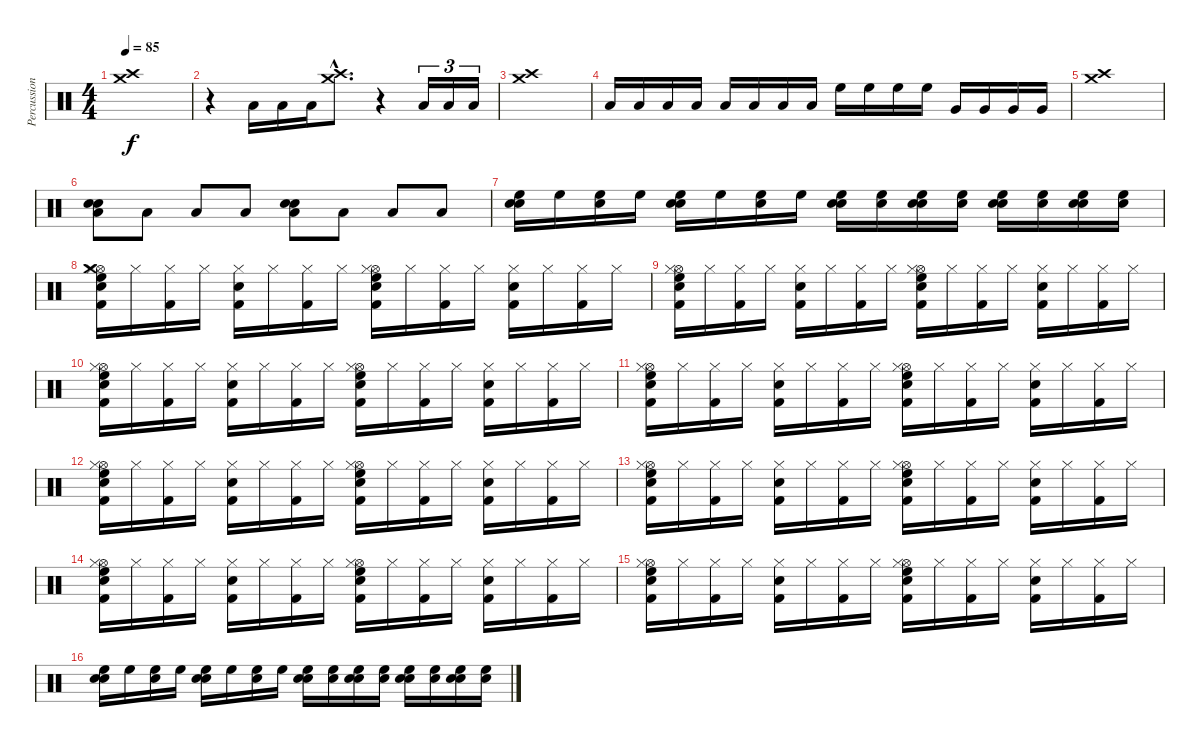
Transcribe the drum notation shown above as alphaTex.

\track ("Percussions" "Percussion") {instrument percussion}
\staff {score}
\articulation defaults
\ts (4 4)
\tempo 85
\clef neutral
\ks c
("Crash medium (hit)" "Crash high (hit)").1{dy f} |
r.4 "Low Floor Tom (hit)".16 "Low Floor Tom (hit)".16 "Low Floor Tom (hit)".16 ("Crash high (hit)"{hac} "Crash medium (hit)"{hac}).8{d} r.4 "Low Floor Tom (hit)".16{tu (3 2)} "Low Floor Tom (hit)".16{tu (3 2)} "Low Floor Tom (hit)".16{tu (3 2)} |
("Crash medium (hit)" "Crash high (hit)").1 |
"Low Tom (hit)".16 "Low Tom (hit)".16 "Low Tom (hit)".16 "Low Tom (hit)".16 "Low Floor Tom (hit)".16 "Low Floor Tom (hit)".16 "Low Floor Tom (hit)".16 "Low Floor Tom (hit)".16 "High Floor Tom (hit)".16 "High Floor Tom (hit)".16 "High Floor Tom (hit)".16 "High Floor Tom (hit)".16 "Very Low Tom (hit)".16 "Very Low Tom (hit)".16 "Very Low Tom (hit)".16 "Very Low Tom (hit)".16 |
("Crash medium (hit)" "Crash high (hit)").1 |
("Snare (hit) 2" "Hand Clap (hit)" "Low Floor Tom (hit)").8 "Low Floor Tom (hit)".8 "Low Floor Tom (hit)".8 "Low Floor Tom (hit)".8 ("Snare (hit) 2" "Hand Clap (hit)" "Low Floor Tom (hit)").8 "Low Floor Tom (hit)".8 "Low Floor Tom (hit)".8 "Low Floor Tom (hit)".8 |
("Snare (hit) 2" "Hand Clap (hit)" "High Floor Tom (hit)").16 "High Floor Tom (hit)".16 ("Snare (hit) 2" "High Floor Tom (hit)").16 "High Floor Tom (hit)".16 ("Snare (hit) 2" "Hand Clap (hit)" "High Floor Tom (hit)").16 "High Floor Tom (hit)".16 ("Snare (hit) 2" "High Floor Tom (hit)").16 "High Floor Tom (hit)".16 ("Snare (hit) 2" "Hand Clap (hit)" "High Floor Tom (hit)").16 ("Snare (hit) 2" "High Floor Tom (hit)").16 ("Snare (hit) 2" "Hand Clap (hit)" "High Floor Tom (hit)").16 ("Snare (hit) 2" "High Floor Tom (hit)").16 ("Snare (hit) 2" "Hand Clap (hit)" "High Floor Tom (hit)").16 ("Snare (hit) 2" "High Floor Tom (hit)").16 ("Snare (hit) 2" "Hand Clap (hit)" "High Floor Tom (hit)").16 ("Snare (hit) 2" "High Floor Tom (hit)").16 |
("Hi-Hat (open)" "Snare (hit) 2" "Kick (hit) 2" "High Floor Tom (hit)" "Crash medium (hit)" "Hi-Hat (closed)").16 "Hi-Hat (closed)".16 ("Kick (hit) 2" "Hi-Hat (closed)").16 "Hi-Hat (closed)".16 ("Snare (hit) 2" "Kick (hit) 2" "Hi-Hat (closed)").16 "Hi-Hat (closed)".16 ("Kick (hit) 2" "Hi-Hat (closed)").16 "Hi-Hat (closed)".16 ("Hi-Hat (open)" "Snare (hit) 2" "Kick (hit) 2" "High Floor Tom (hit)" "Hi-Hat (closed)").16 "Hi-Hat (closed)".16 ("Kick (hit) 2" "Hi-Hat (closed)").16 "Hi-Hat (closed)".16 ("Snare (hit) 2" "Kick (hit) 2" "Hi-Hat (closed)").16 "Hi-Hat (closed)".16 ("Kick (hit) 2" "Hi-Hat (closed)").16 "Hi-Hat (closed)".16 |
("Hi-Hat (open)" "Snare (hit) 2" "Kick (hit) 2" "High Floor Tom (hit)" "Hi-Hat (closed)").16 "Hi-Hat (closed)".16 ("Kick (hit) 2" "Hi-Hat (closed)").16 "Hi-Hat (closed)".16 ("Snare (hit) 2" "Kick (hit) 2" "Hi-Hat (closed)").16 "Hi-Hat (closed)".16 ("Kick (hit) 2" "Hi-Hat (closed)").16 "Hi-Hat (closed)".16 ("Hi-Hat (open)" "Snare (hit) 2" "Kick (hit) 2" "High Floor Tom (hit)" "Hi-Hat (closed)").16 "Hi-Hat (closed)".16 ("Kick (hit) 2" "Hi-Hat (closed)").16 "Hi-Hat (closed)".16 ("Snare (hit) 2" "Kick (hit) 2" "Hi-Hat (closed)").16 "Hi-Hat (closed)".16 ("Kick (hit) 2" "Hi-Hat (closed)").16 "Hi-Hat (closed)".16 |
("Hi-Hat (open)" "Snare (hit) 2" "Kick (hit) 2" "High Floor Tom (hit)" "Hi-Hat (closed)").16 "Hi-Hat (closed)".16 ("Kick (hit) 2" "Hi-Hat (closed)").16 "Hi-Hat (closed)".16 ("Snare (hit) 2" "Kick (hit) 2" "Hi-Hat (closed)").16 "Hi-Hat (closed)".16 ("Kick (hit) 2" "Hi-Hat (closed)").16 "Hi-Hat (closed)".16 ("Hi-Hat (open)" "Snare (hit) 2" "Kick (hit) 2" "High Floor Tom (hit)" "Hi-Hat (closed)").16 "Hi-Hat (closed)".16 ("Kick (hit) 2" "Hi-Hat (closed)").16 "Hi-Hat (closed)".16 ("Snare (hit) 2" "Kick (hit) 2" "Hi-Hat (closed)").16 "Hi-Hat (closed)".16 ("Kick (hit) 2" "Hi-Hat (closed)").16 "Hi-Hat (closed)".16 |
("Hi-Hat (open)" "Snare (hit) 2" "Kick (hit) 2" "High Floor Tom (hit)" "Hi-Hat (closed)").16 "Hi-Hat (closed)".16 ("Kick (hit) 2" "Hi-Hat (closed)").16 "Hi-Hat (closed)".16 ("Snare (hit) 2" "Kick (hit) 2" "Hi-Hat (closed)").16 "Hi-Hat (closed)".16 ("Kick (hit) 2" "Hi-Hat (closed)").16 "Hi-Hat (closed)".16 ("Hi-Hat (open)" "Snare (hit) 2" "Kick (hit) 2" "High Floor Tom (hit)" "Hi-Hat (closed)").16 "Hi-Hat (closed)".16 ("Kick (hit) 2" "Hi-Hat (closed)").16 "Hi-Hat (closed)".16 ("Snare (hit) 2" "Kick (hit) 2" "Hi-Hat (closed)").16 "Hi-Hat (closed)".16 ("Kick (hit) 2" "Hi-Hat (closed)").16 "Hi-Hat (closed)".16 |
("Hi-Hat (open)" "Snare (hit) 2" "Kick (hit) 2" "High Floor Tom (hit)" "Hi-Hat (closed)").16 "Hi-Hat (closed)".16 ("Kick (hit) 2" "Hi-Hat (closed)").16 "Hi-Hat (closed)".16 ("Snare (hit) 2" "Kick (hit) 2" "Hi-Hat (closed)").16 "Hi-Hat (closed)".16 ("Kick (hit) 2" "Hi-Hat (closed)").16 "Hi-Hat (closed)".16 ("Hi-Hat (open)" "Snare (hit) 2" "Kick (hit) 2" "High Floor Tom (hit)" "Hi-Hat (closed)").16 "Hi-Hat (closed)".16 ("Kick (hit) 2" "Hi-Hat (closed)").16 "Hi-Hat (closed)".16 ("Snare (hit) 2" "Kick (hit) 2" "Hi-Hat (closed)").16 "Hi-Hat (closed)".16 ("Kick (hit) 2" "Hi-Hat (closed)").16 "Hi-Hat (closed)".16 |
("Hi-Hat (open)" "Snare (hit) 2" "Kick (hit) 2" "High Floor Tom (hit)" "Hi-Hat (closed)").16 "Hi-Hat (closed)".16 ("Kick (hit) 2" "Hi-Hat (closed)").16 "Hi-Hat (closed)".16 ("Snare (hit) 2" "Kick (hit) 2" "Hi-Hat (closed)").16 "Hi-Hat (closed)".16 ("Kick (hit) 2" "Hi-Hat (closed)").16 "Hi-Hat (closed)".16 ("Hi-Hat (open)" "Snare (hit) 2" "Kick (hit) 2" "High Floor Tom (hit)" "Hi-Hat (closed)").16 "Hi-Hat (closed)".16 ("Kick (hit) 2" "Hi-Hat (closed)").16 "Hi-Hat (closed)".16 ("Snare (hit) 2" "Kick (hit) 2" "Hi-Hat (closed)").16 "Hi-Hat (closed)".16 ("Kick (hit) 2" "Hi-Hat (closed)").16 "Hi-Hat (closed)".16 |
("Hi-Hat (open)" "Snare (hit) 2" "Kick (hit) 2" "High Floor Tom (hit)" "Hi-Hat (closed)").16 "Hi-Hat (closed)".16 ("Kick (hit) 2" "Hi-Hat (closed)").16 "Hi-Hat (closed)".16 ("Snare (hit) 2" "Kick (hit) 2" "Hi-Hat (closed)").16 "Hi-Hat (closed)".16 ("Kick (hit) 2" "Hi-Hat (closed)").16 "Hi-Hat (closed)".16 ("Hi-Hat (open)" "Snare (hit) 2" "Kick (hit) 2" "High Floor Tom (hit)" "Hi-Hat (closed)").16 "Hi-Hat (closed)".16 ("Kick (hit) 2" "Hi-Hat (closed)").16 "Hi-Hat (closed)".16 ("Snare (hit) 2" "Kick (hit) 2" "Hi-Hat (closed)").16 "Hi-Hat (closed)".16 ("Kick (hit) 2" "Hi-Hat (closed)").16 "Hi-Hat (closed)".16 |
("Hi-Hat (open)" "Snare (hit) 2" "Kick (hit) 2" "High Floor Tom (hit)" "Hi-Hat (closed)").16 "Hi-Hat (closed)".16 ("Kick (hit) 2" "Hi-Hat (closed)").16 "Hi-Hat (closed)".16 ("Snare (hit) 2" "Kick (hit) 2" "Hi-Hat (closed)").16 "Hi-Hat (closed)".16 ("Kick (hit) 2" "Hi-Hat (closed)").16 "Hi-Hat (closed)".16 ("Hi-Hat (open)" "Snare (hit) 2" "Kick (hit) 2" "High Floor Tom (hit)" "Hi-Hat (closed)").16 "Hi-Hat (closed)".16 ("Kick (hit) 2" "Hi-Hat (closed)").16 "Hi-Hat (closed)".16 ("Snare (hit) 2" "Kick (hit) 2" "Hi-Hat (closed)").16 "Hi-Hat (closed)".16 ("Kick (hit) 2" "Hi-Hat (closed)").16 "Hi-Hat (closed)".16 |
("Snare (hit) 2" "Hand Clap (hit)" "High Floor Tom (hit)").16 "High Floor Tom (hit)".16 ("Snare (hit) 2" "High Floor Tom (hit)").16 "High Floor Tom (hit)".16 ("Snare (hit) 2" "Hand Clap (hit)" "High Floor Tom (hit)").16 "High Floor Tom (hit)".16 ("Snare (hit) 2" "High Floor Tom (hit)").16 "High Floor Tom (hit)".16 ("Snare (hit) 2" "Hand Clap (hit)" "High Floor Tom (hit)").16 ("Snare (hit) 2" "High Floor Tom (hit)").16 ("Snare (hit) 2" "Hand Clap (hit)" "High Floor Tom (hit)").16 ("Snare (hit) 2" "High Floor Tom (hit)").16 ("Snare (hit) 2" "Hand Clap (hit)" "High Floor Tom (hit)").16 ("Snare (hit) 2" "High Floor Tom (hit)").16 ("Snare (hit) 2" "Hand Clap (hit)" "High Floor Tom (hit)").16 ("Snare (hit) 2" "High Floor Tom (hit)").16
